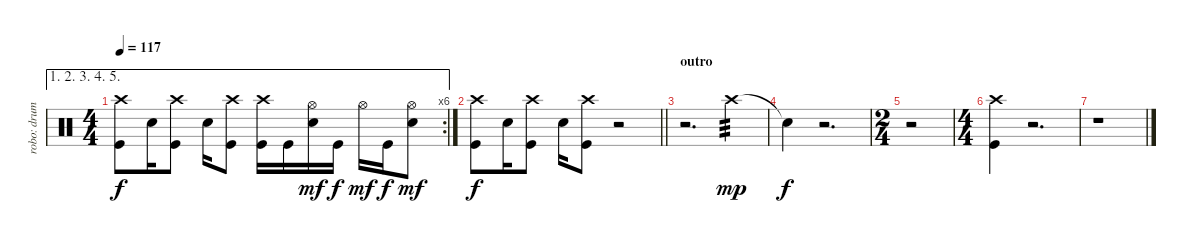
\track ("robo: drums" "robo: drum") {instrument percussion}
\staff {score}
\articulation defaults
\ae (1 2 3 4 5)
\rc 6
\ts (4 4)
\tempo 117
\clef neutral
\ks c
("Crash high (hit)" "Kick (hit)").8{dy f} "Electric Snare (hit)".16 ("Crash high (hit)" "Kick (hit)").8 "Electric Snare (hit)".16 ("Crash high (hit)" "Kick (hit)").8 ("Crash high (hit)" "Kick (hit)").16 "Kick (hit)".16 ("Hi-Hat (open)" "Electric Snare (hit)").16{dy mf} "Kick (hit)".16{dy f} "Hi-Hat (open)".16{dy mf} "Kick (hit)".16{dy f} ("Hi-Hat (open)" "Electric Snare (hit)").8{dy mf} |
\barLineRight lightlight
("Crash high (hit)" "Kick (hit)").8{dy f} "Electric Snare (hit)".16 ("Crash high (hit)" "Kick (hit)").8 "Electric Snare (hit)".16 ("Crash high (hit)" "Kick (hit)").8 r.2 |
\section ("" "outro")
r.2{d} "Crash high (hit)".4{tp 3 dy mp} |
"Snare (hit)"{t}.4{dy f} r.2{d} |
\ts (2 4)
r.2 |
\ts (4 4)
("Crash high (hit)" "Kick (hit)").4 r.2{d} |
r.1
